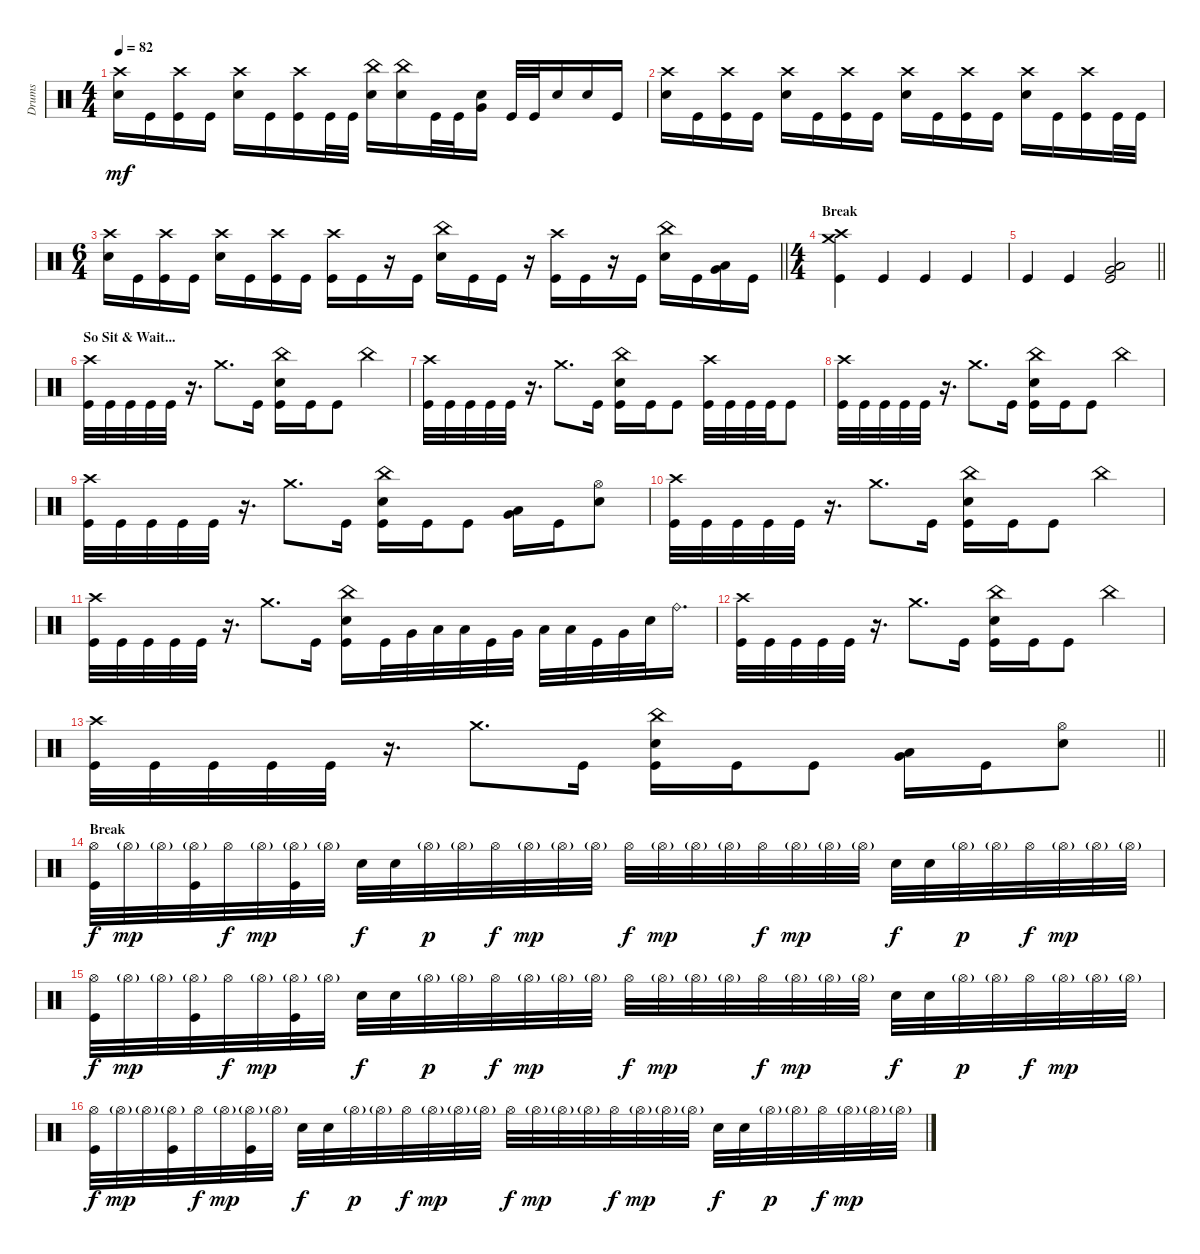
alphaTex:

\track ("Drums" "Drums") {instrument percussion bank 177}
\staff {score}
\articulation defaults
\ts (4 4)
\tempo 82
\clef neutral
\ks c
("Crash high (hit)" "Snare (hit) 2").16{dy mf} "Kick (hit)".16 ("Crash high (hit)" "Kick (hit)").16 "Kick (hit)".16 ("Crash high (hit)" "Snare (hit) 2").16 "Kick (hit)".16 ("Crash high (hit)" "Kick (hit)").16 "Kick (hit)".32 "Kick (hit)".32 ("China (hit)" "Snare (hit) 2").16 ("China (hit)" "Snare (hit) 2").16 "Kick (hit)".32 "Kick (hit)".32 ("Very Low Tom (hit)" "Snare (hit) 2").16 "Kick (hit)".32 "Kick (hit)".32 "Snare (hit) 2".16 "Snare (hit) 2".16 "Kick (hit)".16 |
("Crash high (hit)" "Snare (hit) 2").16 "Kick (hit)".16 ("Crash high (hit)" "Kick (hit)").16 "Kick (hit)".16 ("Crash high (hit)" "Snare (hit) 2").16 "Kick (hit)".16 ("Crash high (hit)" "Kick (hit)").16 "Kick (hit)".16 ("Crash high (hit)" "Snare (hit) 2").16 "Kick (hit)".16 ("Crash high (hit)" "Kick (hit)").16 "Kick (hit)".16 ("Crash high (hit)" "Snare (hit) 2").16 "Kick (hit)".16 ("Crash high (hit)" "Kick (hit)").16 "Kick (hit)".32 "Kick (hit)".32 |
\ts (6 4)
\barLineRight lightlight
("Crash high (hit)" "Snare (hit) 2").16 "Kick (hit)".16 ("Crash high (hit)" "Kick (hit)").16 "Kick (hit)".16 ("Crash high (hit)" "Snare (hit) 2").16 "Kick (hit)".16 ("Crash high (hit)" "Kick (hit)").16 "Kick (hit)".16 ("Crash high (hit)" "Kick (hit)").16 "Kick (hit)".16 r.16 "Kick (hit)".16 ("China (hit)" "Snare (hit) 2").16 "Kick (hit)".16 "Kick (hit)".16 r.16 ("Crash high (hit)" "Kick (hit)").16 "Kick (hit)".16 r.16 "Kick (hit)".16 ("China (hit)" "Snare (hit) 2").16 "Kick (hit)".16 ("Low Tom (hit)" "Very Low Tom (hit)").16 "Kick (hit)".16 |
\ts (4 4)
\section ("" "Break")
("Crash high (hit)" "Crash medium (hit)" "Kick (hit)").4 "Kick (hit)".4 "Kick (hit)".4 "Kick (hit)".4 |
\barLineRight lightlight "Kick (hit)".4 "Kick (hit)".4
("Low Floor Tom (hit)" "Very Low Tom (hit)" "Kick (hit)").2 |
\section ("" "So Sit & Wait...")
("Crash high (hit)" "Kick (hit)").32 "Kick (hit)".32 "Kick (hit)".32 "Kick (hit)".32 "Kick (hit)".32 r.16{d} "Crash medium (hit)".8{d} "Kick (hit)".16 ("China (hit)" "Snare (hit) 2" "Kick (hit)").16 "Kick (hit)".16 "Kick (hit)".8 "China (hit)".4 |
("Crash high (hit)" "Kick (hit)").32 "Kick (hit)".32 "Kick (hit)".32 "Kick (hit)".32 "Kick (hit)".32 r.16{d} "Crash medium (hit)".8{d} "Kick (hit)".16 ("China (hit)" "Snare (hit) 2" "Kick (hit)").16 "Kick (hit)".16 "Kick (hit)".8 ("Crash high (hit)" "Kick (hit)").32 "Kick (hit)".32 "Kick (hit)".32 "Kick (hit)".32 "Kick (hit)".8 |
("Crash high (hit)" "Kick (hit)").32 "Kick (hit)".32 "Kick (hit)".32 "Kick (hit)".32 "Kick (hit)".32 r.16{d} "Crash medium (hit)".8{d} "Kick (hit)".16 ("China (hit)" "Snare (hit) 2" "Kick (hit)").16 "Kick (hit)".16 "Kick (hit)".8 "China (hit)".4 |
("Crash high (hit)" "Kick (hit)").32 "Kick (hit)".32 "Kick (hit)".32 "Kick (hit)".32 "Kick (hit)".32 r.16{d} "Crash medium (hit)".8{d} "Kick (hit)".16 ("China (hit)" "Snare (hit) 2" "Kick (hit)").16 "Kick (hit)".16 "Kick (hit)".8 ("Low Tom (hit)" "Very Low Tom (hit)").16 "Kick (hit)".16 ("Hi-Hat (open)" "Snare (hit) 2").8 |
("Crash high (hit)" "Kick (hit)").32 "Kick (hit)".32 "Kick (hit)".32 "Kick (hit)".32 "Kick (hit)".32 r.16{d} "Crash medium (hit)".8{d} "Kick (hit)".16 ("China (hit)" "Snare (hit) 2" "Kick (hit)").16 "Kick (hit)".16 "Kick (hit)".8 "China (hit)".4 |
("Crash high (hit)" "Kick (hit)").32 "Kick (hit)".32 "Kick (hit)".32 "Kick (hit)".32 "Kick (hit)".32 r.16{d} "Crash medium (hit)".8{d} "Kick (hit)".16 ("China (hit)" "Snare (hit) 2" "Kick (hit)").16 "Kick (hit)".32 "Very Low Tom (hit)".32 "Low Tom (hit)".32 "Low Tom (hit)".32 "Kick (hit)".32 "Very Low Tom (hit)".32 "Low Tom (hit)".32 "Low Tom (hit)".32 "Kick (hit)".32 "Very Low Tom (hit)".32 "Snare (hit) 2".32 "Ride (bell)".16{d} |
("Crash high (hit)" "Kick (hit)").32 "Kick (hit)".32 "Kick (hit)".32 "Kick (hit)".32 "Kick (hit)".32 r.16{d} "Crash medium (hit)".8{d} "Kick (hit)".16 ("China (hit)" "Snare (hit) 2" "Kick (hit)").16 "Kick (hit)".16 "Kick (hit)".8 "China (hit)".4 |
\barLineRight lightlight
("Crash high (hit)" "Kick (hit)").32 "Kick (hit)".32 "Kick (hit)".32 "Kick (hit)".32 "Kick (hit)".32 r.16{d} "Crash medium (hit)".8{d} "Kick (hit)".16 ("China (hit)" "Snare (hit) 2" "Kick (hit)").16 "Kick (hit)".16 "Kick (hit)".8 ("Low Tom (hit)" "Very Low Tom (hit)").16 "Kick (hit)".16 ("Hi-Hat (open)" "Snare (hit) 2").8 |
\section ("" "Break")
("Hi-Hat (open)" "Kick (hit)").32{dy f} "Hi-Hat (open)"{g}.32{dy mp} "Hi-Hat (open)"{g}.32 ("Hi-Hat (open)"{g} "Kick (hit)").32 "Hi-Hat (open)".32{dy f} "Hi-Hat (open)"{g}.32{dy mp} ("Hi-Hat (open)"{g} "Kick (hit)").32 "Hi-Hat (open)"{g}.32 "Snare (hit) 2".32{dy f} "Snare (hit) 2".32 "Hi-Hat (open)"{g}.32{dy p} "Hi-Hat (open)"{g}.32 "Hi-Hat (open)".32{dy f} "Hi-Hat (open)"{g}.32{dy mp} "Hi-Hat (open)"{g}.32 "Hi-Hat (open)"{g}.32 "Hi-Hat (open)".32{dy f} "Hi-Hat (open)"{g}.32{dy mp} "Hi-Hat (open)"{g}.32 "Hi-Hat (open)"{g}.32 "Hi-Hat (open)".32{dy f} "Hi-Hat (open)"{g}.32{dy mp} "Hi-Hat (open)"{g}.32 "Hi-Hat (open)"{g}.32 "Snare (hit) 2".32{dy f} "Snare (hit) 2".32 "Hi-Hat (open)"{g}.32{dy p} "Hi-Hat (open)"{g}.32 "Hi-Hat (open)".32{dy f} "Hi-Hat (open)"{g}.32{dy mp} "Hi-Hat (open)"{g}.32 "Hi-Hat (open)"{g}.32 |
("Hi-Hat (open)" "Kick (hit)").32{dy f} "Hi-Hat (open)"{g}.32{dy mp} "Hi-Hat (open)"{g}.32 ("Hi-Hat (open)"{g} "Kick (hit)").32 "Hi-Hat (open)".32{dy f} "Hi-Hat (open)"{g}.32{dy mp} ("Hi-Hat (open)"{g} "Kick (hit)").32 "Hi-Hat (open)"{g}.32 "Snare (hit) 2".32{dy f} "Snare (hit) 2".32 "Hi-Hat (open)"{g}.32{dy p} "Hi-Hat (open)"{g}.32 "Hi-Hat (open)".32{dy f} "Hi-Hat (open)"{g}.32{dy mp} "Hi-Hat (open)"{g}.32 "Hi-Hat (open)"{g}.32 "Hi-Hat (open)".32{dy f} "Hi-Hat (open)"{g}.32{dy mp} "Hi-Hat (open)"{g}.32 "Hi-Hat (open)"{g}.32 "Hi-Hat (open)".32{dy f} "Hi-Hat (open)"{g}.32{dy mp} "Hi-Hat (open)"{g}.32 "Hi-Hat (open)"{g}.32 "Snare (hit) 2".32{dy f} "Snare (hit) 2".32 "Hi-Hat (open)"{g}.32{dy p} "Hi-Hat (open)"{g}.32 "Hi-Hat (open)".32{dy f} "Hi-Hat (open)"{g}.32{dy mp} "Hi-Hat (open)"{g}.32 "Hi-Hat (open)"{g}.32 |
("Hi-Hat (open)" "Kick (hit)").32{dy f} "Hi-Hat (open)"{g}.32{dy mp} "Hi-Hat (open)"{g}.32 ("Hi-Hat (open)"{g} "Kick (hit)").32 "Hi-Hat (open)".32{dy f} "Hi-Hat (open)"{g}.32{dy mp} ("Hi-Hat (open)"{g} "Kick (hit)").32 "Hi-Hat (open)"{g}.32 "Snare (hit) 2".32{dy f} "Snare (hit) 2".32 "Hi-Hat (open)"{g}.32{dy p} "Hi-Hat (open)"{g}.32 "Hi-Hat (open)".32{dy f} "Hi-Hat (open)"{g}.32{dy mp} "Hi-Hat (open)"{g}.32 "Hi-Hat (open)"{g}.32 "Hi-Hat (open)".32{dy f} "Hi-Hat (open)"{g}.32{dy mp} "Hi-Hat (open)"{g}.32 "Hi-Hat (open)"{g}.32 "Hi-Hat (open)".32{dy f} "Hi-Hat (open)"{g}.32{dy mp} "Hi-Hat (open)"{g}.32 "Hi-Hat (open)"{g}.32 "Snare (hit) 2".32{dy f} "Snare (hit) 2".32 "Hi-Hat (open)"{g}.32{dy p} "Hi-Hat (open)"{g}.32 "Hi-Hat (open)".32{dy f} "Hi-Hat (open)"{g}.32{dy mp} "Hi-Hat (open)"{g}.32 "Hi-Hat (open)"{g}.32
